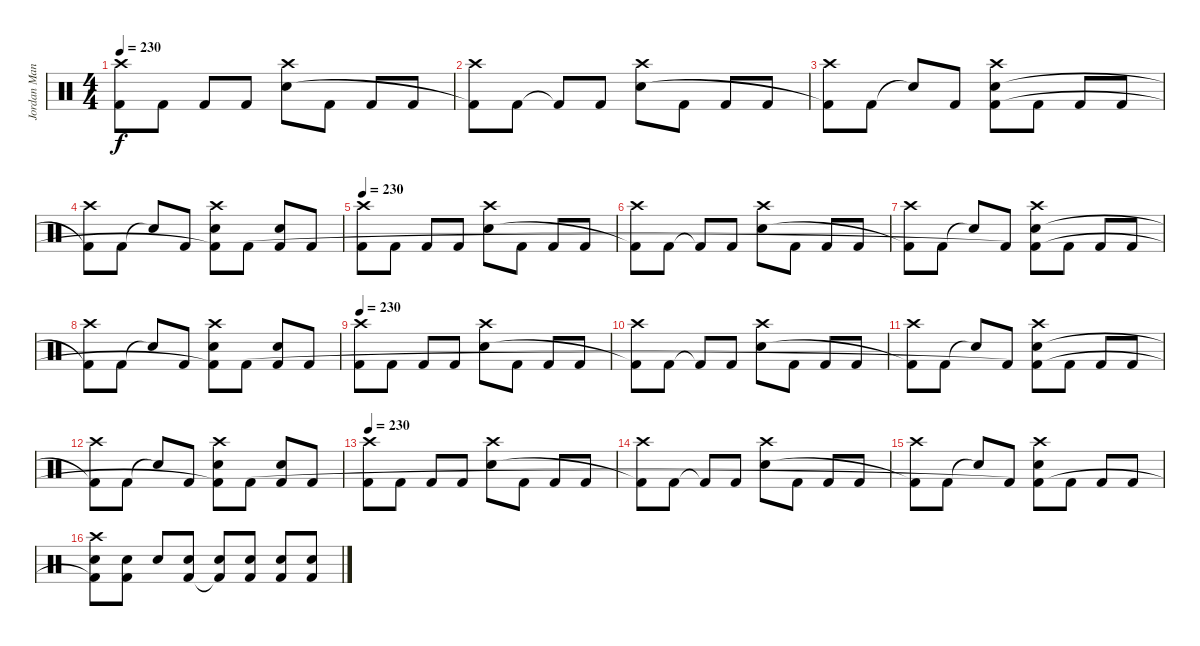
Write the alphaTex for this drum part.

\track ("Jordan Mancino" "Jordan Man") {instrument percussion}
\staff {score}
\articulation defaults
\ts (4 4)
\tempo 230
\clef neutral
\ks c
("Crash high (hit)" "Kick (hit) 2").8{dy f} "Kick (hit) 2".8 "Kick (hit) 2".8 "Kick (hit) 2".8 ("Crash high (hit)" "Electric Snare (hit)").8 "Kick (hit) 2".8 "Kick (hit) 2".8 "Kick (hit) 2".8 |
("Crash high (hit)" "Kick (hit) 2"{t}).8 "Kick (hit) 2".8 "Kick (hit) 2"{t}.8 "Kick (hit) 2".8 ("Crash high (hit)" "Electric Snare (hit)").8 "Kick (hit) 2".8 "Kick (hit) 2".8 "Kick (hit) 2".8 |
("Crash high (hit)" "Kick (hit) 2"{t}).8 "Kick (hit) 2".8 "Snare (hit)"{t}.8 "Kick (hit) 2".8 ("Crash high (hit)" "Electric Snare (hit)" "Kick (hit) 2").8 "Kick (hit) 2".8 "Kick (hit) 2".8 "Kick (hit) 2".8 |
("Crash high (hit)" "Kick (hit) 2"{t}).8 "Kick (hit) 2".8 "Snare (hit)"{t}.8 "Kick (hit) 2".8 ("Crash high (hit)" "Electric Snare (hit)" "Kick (hit) 2"{t}).8 "Kick (hit) 2".8 ("Electric Snare (hit)" "Kick (hit) 2").8 "Kick (hit) 2".8 |
\tempo 230
("Crash high (hit)" "Kick (hit) 2").8 "Kick (hit) 2".8 "Kick (hit) 2".8 "Kick (hit) 2".8 ("Crash high (hit)" "Electric Snare (hit)").8 "Kick (hit) 2".8 "Kick (hit) 2".8 "Kick (hit) 2".8 |
("Crash high (hit)" "Kick (hit) 2"{t}).8 "Kick (hit) 2".8 "Kick (hit) 2"{t}.8 "Kick (hit) 2".8 ("Crash high (hit)" "Electric Snare (hit)").8 "Kick (hit) 2".8 "Kick (hit) 2".8 "Kick (hit) 2".8 |
("Crash high (hit)" "Kick (hit) 2"{t}).8 "Kick (hit) 2".8 "Snare (hit)"{t}.8 "Kick (hit) 2".8 ("Crash high (hit)" "Electric Snare (hit)" "Kick (hit) 2"{t}).8 "Kick (hit) 2".8 "Kick (hit) 2".8 "Kick (hit) 2".8 |
("Crash high (hit)" "Kick (hit) 2"{t}).8 "Kick (hit) 2".8 "Snare (hit)"{t}.8 "Kick (hit) 2".8 ("Crash high (hit)" "Electric Snare (hit)" "Kick (hit) 2"{t}).8 "Kick (hit) 2".8 ("Electric Snare (hit)" "Kick (hit) 2").8 "Kick (hit) 2".8 |
\tempo 230
("Crash high (hit)" "Kick (hit) 2").8 "Kick (hit) 2".8 "Kick (hit) 2".8 "Kick (hit) 2".8 ("Crash high (hit)" "Electric Snare (hit)").8 "Kick (hit) 2".8 "Kick (hit) 2".8 "Kick (hit) 2".8 |
("Crash high (hit)" "Kick (hit) 2"{t}).8 "Kick (hit) 2".8 "Kick (hit) 2"{t}.8 "Kick (hit) 2".8 ("Crash high (hit)" "Electric Snare (hit)").8 "Kick (hit) 2".8 "Kick (hit) 2".8 "Kick (hit) 2".8 |
("Crash high (hit)" "Kick (hit) 2"{t}).8 "Kick (hit) 2".8 "Snare (hit)"{t}.8 "Kick (hit) 2".8 ("Crash high (hit)" "Electric Snare (hit)" "Kick (hit) 2"{t}).8 "Kick (hit) 2".8 "Kick (hit) 2".8 "Kick (hit) 2".8 |
("Crash high (hit)" "Kick (hit) 2"{t}).8 "Kick (hit) 2".8 "Snare (hit)"{t}.8 "Kick (hit) 2".8 ("Crash high (hit)" "Electric Snare (hit)" "Kick (hit) 2"{t}).8 "Kick (hit) 2".8 ("Electric Snare (hit)" "Kick (hit) 2").8 "Kick (hit) 2".8 |
\tempo 230
("Crash high (hit)" "Kick (hit) 2").8 "Kick (hit) 2".8 "Kick (hit) 2".8 "Kick (hit) 2".8 ("Crash high (hit)" "Electric Snare (hit)").8 "Kick (hit) 2".8 "Kick (hit) 2".8 "Kick (hit) 2".8 |
("Crash high (hit)" "Kick (hit) 2"{t}).8 "Kick (hit) 2".8 "Kick (hit) 2"{t}.8 "Kick (hit) 2".8 ("Crash high (hit)" "Electric Snare (hit)").8 "Kick (hit) 2".8 "Kick (hit) 2".8 "Kick (hit) 2".8 |
("Crash high (hit)" "Kick (hit) 2"{t}).8 "Kick (hit) 2".8 "Snare (hit)"{t}.8 "Kick (hit) 2".8 ("Crash high (hit)" "Electric Snare (hit)" "Kick (hit) 2"{t}).8 "Kick (hit) 2".8 "Kick (hit) 2".8 "Kick (hit) 2".8 |
("Crash high (hit)" "Electric Snare (hit)" "Kick (hit) 2"{t}).8 ("Electric Snare (hit)" "Kick (hit) 2").8 "Electric Snare (hit)".8 ("Electric Snare (hit)" "Kick (hit) 2").8 ("Electric Snare (hit)" "Kick (hit) 2"{t}).8 ("Electric Snare (hit)" "Kick (hit) 2").8 ("Electric Snare (hit)" "Kick (hit) 2").8 ("Electric Snare (hit)" "Kick (hit) 2").8
